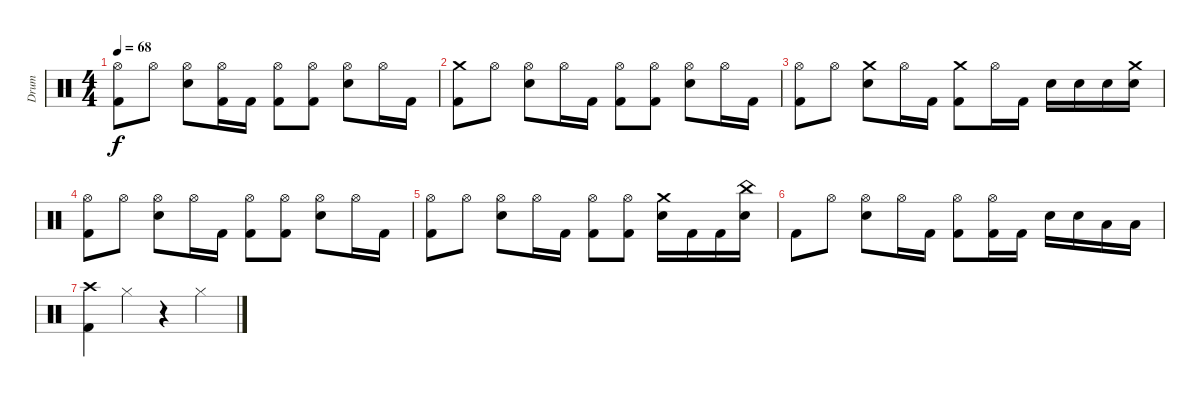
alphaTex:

\track ("Drum" "Drum") {instrument percussion}
\staff {score}
\articulation defaults
\ts (4 4)
\tempo 68
\clef neutral
\ks c
("Hi-Hat (open)" "Kick (hit) 2").8{dy f} "Hi-Hat (open)".8 ("Hi-Hat (open)" "Snare (hit) 2").8 ("Hi-Hat (open)" "Kick (hit) 2").16 "Kick (hit) 2".16 ("Hi-Hat (open)" "Kick (hit) 2").8 ("Hi-Hat (open)" "Kick (hit) 2").8 ("Hi-Hat (open)" "Snare (hit) 2").8 "Hi-Hat (open)".16 "Kick (hit) 2".16 |
("Crash medium (hit)" "Kick (hit) 2").8 "Hi-Hat (open)".8 ("Hi-Hat (open)" "Snare (hit) 2").8 "Hi-Hat (open)".16 "Kick (hit) 2".16 ("Hi-Hat (open)" "Kick (hit) 2").8 ("Hi-Hat (open)" "Kick (hit) 2").8 ("Hi-Hat (open)" "Snare (hit) 2").8 "Hi-Hat (open)".16 "Kick (hit) 2".16 |
("Hi-Hat (open)" "Kick (hit) 2").8 "Hi-Hat (open)".8 ("Crash medium (hit)" "Snare (hit) 2").8 "Hi-Hat (open)".16 "Kick (hit) 2".16 ("Crash medium (hit)" "Kick (hit) 2").8 "Hi-Hat (open)".16 "Kick (hit) 2".16 "Snare (hit) 2".16 "Snare (hit) 2".16 "Snare (hit) 2".16 ("Crash medium (hit)" "Snare (hit) 2").16 |
("Hi-Hat (open)" "Kick (hit) 2").8 "Hi-Hat (open)".8 ("Hi-Hat (open)" "Snare (hit) 2").8 "Hi-Hat (open)".16 "Kick (hit) 2".16 ("Hi-Hat (open)" "Kick (hit) 2").8 ("Hi-Hat (open)" "Kick (hit) 2").8 ("Hi-Hat (open)" "Snare (hit) 2").8 "Hi-Hat (open)".16 "Kick (hit) 2".16 |
("Hi-Hat (open)" "Kick (hit) 2").8 "Hi-Hat (open)".8 ("Hi-Hat (open)" "Snare (hit) 2").8 "Hi-Hat (open)".16 "Kick (hit) 2".16 ("Hi-Hat (open)" "Kick (hit) 2").8 ("Hi-Hat (open)" "Kick (hit) 2").8 ("Crash medium (hit)" "Snare (hit) 2").16 "Kick (hit) 2".16 "Kick (hit) 2".16 ("China (hit)" "Snare (hit) 2").16 |
"Kick (hit) 2".8 "Hi-Hat (open)".8 ("Hi-Hat (open)" "Snare (hit) 2").8 "Hi-Hat (open)".16 "Kick (hit) 2".16 ("Hi-Hat (open)" "Kick (hit) 2").8 ("Hi-Hat (open)" "Kick (hit) 2").16 "Kick (hit) 2".16 "Snare (hit) 2".16 "Snare (hit) 2".16 "Low Tom (hit)".16 "Low Tom (hit)".16 |
("Crash high (hit)" "Kick (hit) 2").4 "Hi-Hat (closed)".4 r.4 "Hi-Hat (closed)".4
